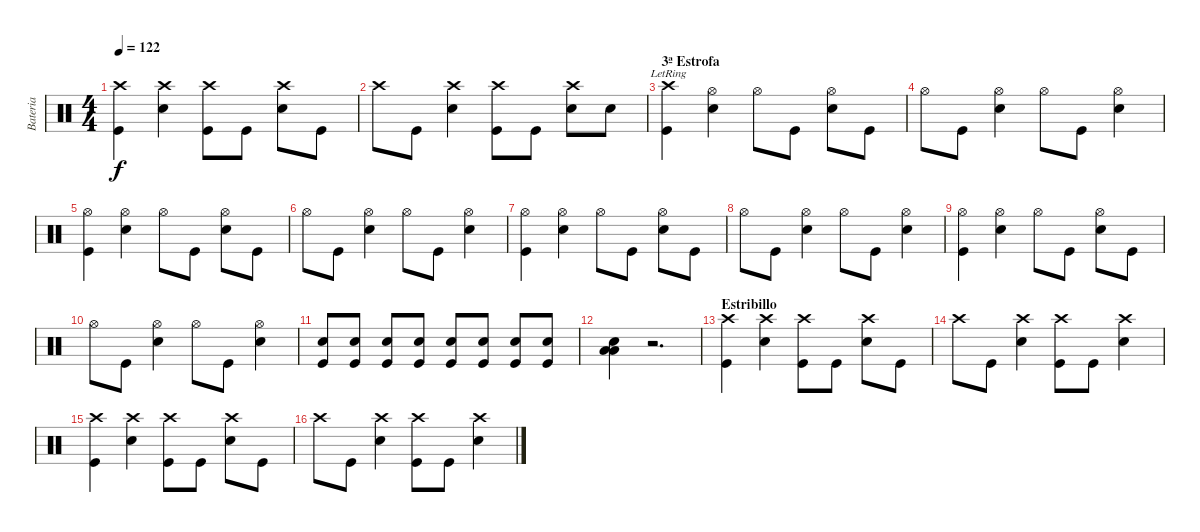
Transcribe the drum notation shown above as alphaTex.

\track ("Bateria" "Bateria") {instrument percussion}
\staff {score}
\articulation defaults
\ts (4 4)
\tempo 122
\clef neutral
\ks c
("Crash high (hit)" "Kick (hit)").4{dy f} ("Crash high (hit)" "Snare (hit) 2").4 ("Crash high (hit)" "Kick (hit)").8 "Kick (hit)".8 ("Crash high (hit)" "Snare (hit) 2").8 "Kick (hit)".8 |
"Crash high (hit)".8 "Kick (hit)".8 ("Crash high (hit)" "Snare (hit) 2").4 ("Crash high (hit)" "Kick (hit)").8 "Kick (hit)".8 ("Crash high (hit)" "Snare (hit) 2").8 "Snare (hit) 2".8 |
\section ("" "3ª Estrofa")
("Crash high (hit)"{lr} "Kick (hit)").4 ("Hi-Hat (open)" "Snare (hit) 2").4 "Hi-Hat (open)".8 "Kick (hit)".8 ("Hi-Hat (open)" "Snare (hit) 2").8 "Kick (hit)".8 |
"Hi-Hat (open)".8 "Kick (hit)".8 ("Hi-Hat (open)" "Snare (hit) 2").4 "Hi-Hat (open)".8 "Kick (hit)".8 ("Hi-Hat (open)" "Snare (hit) 2").4 |
("Hi-Hat (open)" "Kick (hit)").4 ("Hi-Hat (open)" "Snare (hit) 2").4 "Hi-Hat (open)".8 "Kick (hit)".8 ("Hi-Hat (open)" "Snare (hit) 2").8 "Kick (hit)".8 |
"Hi-Hat (open)".8 "Kick (hit)".8 ("Hi-Hat (open)" "Snare (hit) 2").4 "Hi-Hat (open)".8 "Kick (hit)".8 ("Hi-Hat (open)" "Snare (hit) 2").4 |
("Hi-Hat (open)" "Kick (hit)").4 ("Hi-Hat (open)" "Snare (hit) 2").4 "Hi-Hat (open)".8 "Kick (hit)".8 ("Hi-Hat (open)" "Snare (hit) 2").8 "Kick (hit)".8 |
"Hi-Hat (open)".8 "Kick (hit)".8 ("Hi-Hat (open)" "Snare (hit) 2").4 "Hi-Hat (open)".8 "Kick (hit)".8 ("Hi-Hat (open)" "Snare (hit) 2").4 |
("Hi-Hat (open)" "Kick (hit)").4 ("Hi-Hat (open)" "Snare (hit) 2").4 "Hi-Hat (open)".8 "Kick (hit)".8 ("Hi-Hat (open)" "Snare (hit) 2").8 "Kick (hit)".8 |
"Hi-Hat (open)".8 "Kick (hit)".8 ("Hi-Hat (open)" "Snare (hit) 2").4 "Hi-Hat (open)".8 "Kick (hit)".8 ("Hi-Hat (open)" "Snare (hit) 2").4 |
("Snare (hit) 2" "Kick (hit)").8 ("Snare (hit) 2" "Kick (hit)").8 ("Snare (hit) 2" "Kick (hit)").8 ("Snare (hit) 2" "Kick (hit)").8 ("Snare (hit) 2" "Kick (hit)").8 ("Snare (hit) 2" "Kick (hit)").8 ("Snare (hit) 2" "Kick (hit)").8 ("Snare (hit) 2" "Kick (hit)").8 |
("Snare (hit) 2" "Low Floor Tom (hit)" "Low Floor Tom (hit)").4 r.2{d} |
\section ("" "Estribillo")
("Crash high (hit)" "Kick (hit)").4 ("Crash high (hit)" "Snare (hit) 2").4 ("Crash high (hit)" "Kick (hit)").8 "Kick (hit)".8 ("Crash high (hit)" "Snare (hit) 2").8 "Kick (hit)".8 |
"Crash high (hit)".8 "Kick (hit)".8 ("Crash high (hit)" "Snare (hit) 2").4 ("Crash high (hit)" "Kick (hit)").8 "Kick (hit)".8 ("Crash high (hit)" "Snare (hit) 2").4 |
("Crash high (hit)" "Kick (hit)").4 ("Crash high (hit)" "Snare (hit) 2").4 ("Crash high (hit)" "Kick (hit)").8 "Kick (hit)".8 ("Crash high (hit)" "Snare (hit) 2").8 "Kick (hit)".8 |
"Crash high (hit)".8 "Kick (hit)".8 ("Crash high (hit)" "Snare (hit) 2").4 ("Crash high (hit)" "Kick (hit)").8 "Kick (hit)".8 ("Crash high (hit)" "Snare (hit) 2").4
